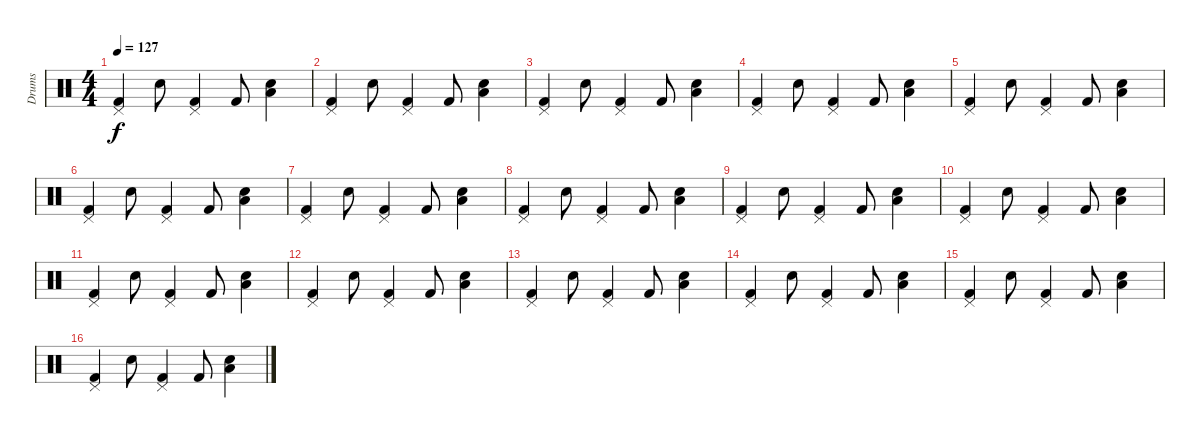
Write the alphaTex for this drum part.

\track ("Drums" "Drums") {instrument percussion}
\staff {score}
\articulation defaults
\ts (4 4)
\tempo 127
\clef neutral
\ks c
("Pedal Hi-Hat (hit)" "Kick (hit) 2").4{dy f} "Snare (hit) 2".8 ("Pedal Hi-Hat (hit)" "Kick (hit) 2").4 "Kick (hit) 2".8 ("Low Floor Tom (hit)" "Snare (hit) 2").4 |
("Pedal Hi-Hat (hit)" "Kick (hit) 2").4 "Snare (hit) 2".8 ("Pedal Hi-Hat (hit)" "Kick (hit) 2").4 "Kick (hit) 2".8 ("Low Floor Tom (hit)" "Snare (hit) 2").4 |
("Pedal Hi-Hat (hit)" "Kick (hit) 2").4 "Snare (hit) 2".8 ("Pedal Hi-Hat (hit)" "Kick (hit) 2").4 "Kick (hit) 2".8 ("Low Floor Tom (hit)" "Snare (hit) 2").4 |
("Pedal Hi-Hat (hit)" "Kick (hit) 2").4 "Snare (hit) 2".8 ("Pedal Hi-Hat (hit)" "Kick (hit) 2").4 "Kick (hit) 2".8 ("Low Floor Tom (hit)" "Snare (hit) 2").4 |
("Pedal Hi-Hat (hit)" "Kick (hit) 2").4 "Snare (hit) 2".8 ("Pedal Hi-Hat (hit)" "Kick (hit) 2").4 "Kick (hit) 2".8 ("Low Floor Tom (hit)" "Snare (hit) 2").4 |
("Pedal Hi-Hat (hit)" "Kick (hit) 2").4 "Snare (hit) 2".8 ("Pedal Hi-Hat (hit)" "Kick (hit) 2").4 "Kick (hit) 2".8 ("Low Floor Tom (hit)" "Snare (hit) 2").4 |
("Pedal Hi-Hat (hit)" "Kick (hit) 2").4 "Snare (hit) 2".8 ("Pedal Hi-Hat (hit)" "Kick (hit) 2").4 "Kick (hit) 2".8 ("Low Floor Tom (hit)" "Snare (hit) 2").4 |
("Pedal Hi-Hat (hit)" "Kick (hit) 2").4 "Snare (hit) 2".8 ("Pedal Hi-Hat (hit)" "Kick (hit) 2").4 "Kick (hit) 2".8 ("Low Floor Tom (hit)" "Snare (hit) 2").4 |
("Pedal Hi-Hat (hit)" "Kick (hit) 2").4 "Snare (hit) 2".8 ("Pedal Hi-Hat (hit)" "Kick (hit) 2").4 "Kick (hit) 2".8 ("Low Floor Tom (hit)" "Snare (hit) 2").4 |
("Pedal Hi-Hat (hit)" "Kick (hit) 2").4 "Snare (hit) 2".8 ("Pedal Hi-Hat (hit)" "Kick (hit) 2").4 "Kick (hit) 2".8 ("Low Floor Tom (hit)" "Snare (hit) 2").4 |
("Pedal Hi-Hat (hit)" "Kick (hit) 2").4 "Snare (hit) 2".8 ("Pedal Hi-Hat (hit)" "Kick (hit) 2").4 "Kick (hit) 2".8 ("Low Floor Tom (hit)" "Snare (hit) 2").4 |
("Pedal Hi-Hat (hit)" "Kick (hit) 2").4 "Snare (hit) 2".8 ("Pedal Hi-Hat (hit)" "Kick (hit) 2").4 "Kick (hit) 2".8 ("Low Floor Tom (hit)" "Snare (hit) 2").4 |
("Pedal Hi-Hat (hit)" "Kick (hit) 2").4 "Snare (hit) 2".8 ("Pedal Hi-Hat (hit)" "Kick (hit) 2").4 "Kick (hit) 2".8 ("Low Floor Tom (hit)" "Snare (hit) 2").4 |
("Pedal Hi-Hat (hit)" "Kick (hit) 2").4 "Snare (hit) 2".8 ("Pedal Hi-Hat (hit)" "Kick (hit) 2").4 "Kick (hit) 2".8 ("Low Floor Tom (hit)" "Snare (hit) 2").4 |
("Pedal Hi-Hat (hit)" "Kick (hit) 2").4 "Snare (hit) 2".8 ("Pedal Hi-Hat (hit)" "Kick (hit) 2").4 "Kick (hit) 2".8 ("Low Floor Tom (hit)" "Snare (hit) 2").4 |
("Pedal Hi-Hat (hit)" "Kick (hit) 2").4 "Snare (hit) 2".8 ("Pedal Hi-Hat (hit)" "Kick (hit) 2").4 "Kick (hit) 2".8 ("Low Floor Tom (hit)" "Snare (hit) 2").4
